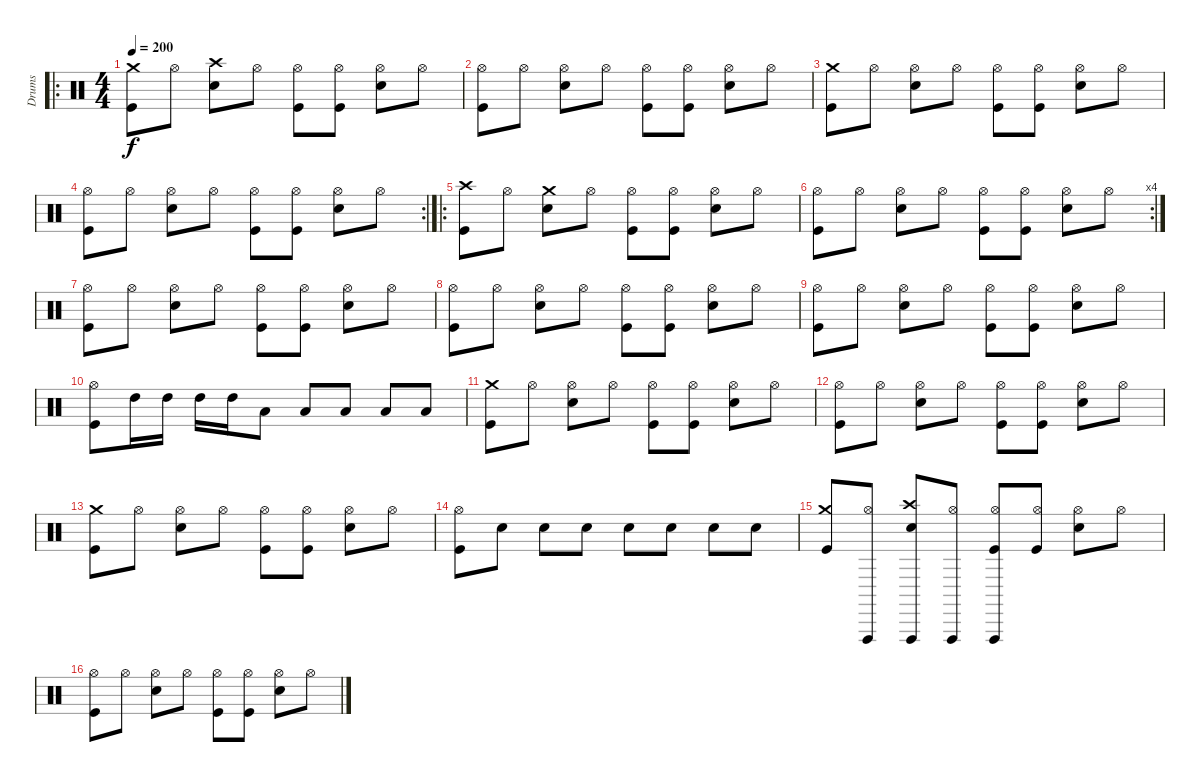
\track ("Drums" "Drums") {instrument percussion}
\staff {score}
\articulation defaults
\ro
\ts (4 4)
\tempo 200
\clef neutral
\ks c
("Crash medium (hit)" "Kick (hit)").8{dy f} "Hi-Hat (open)".8 ("Crash high (hit)" "Snare (hit) 2").8 "Hi-Hat (open)".8 ("Hi-Hat (open)" "Kick (hit)").8 ("Hi-Hat (open)" "Kick (hit)").8 ("Hi-Hat (open)" "Snare (hit) 2").8 "Hi-Hat (open)".8 |
("Hi-Hat (open)" "Kick (hit)").8 "Hi-Hat (open)".8 ("Hi-Hat (open)" "Snare (hit) 2").8 "Hi-Hat (open)".8 ("Hi-Hat (open)" "Kick (hit)").8 ("Hi-Hat (open)" "Kick (hit)").8 ("Hi-Hat (open)" "Snare (hit) 2").8 "Hi-Hat (open)".8 |
("Crash medium (hit)" "Kick (hit)").8 "Hi-Hat (open)".8 ("Hi-Hat (open)" "Snare (hit) 2").8 "Hi-Hat (open)".8 ("Hi-Hat (open)" "Kick (hit)").8 ("Hi-Hat (open)" "Kick (hit)").8 ("Hi-Hat (open)" "Snare (hit) 2").8 "Hi-Hat (open)".8 |
\rc 2
("Hi-Hat (open)" "Kick (hit)").8 "Hi-Hat (open)".8 ("Hi-Hat (open)" "Snare (hit) 2").8 "Hi-Hat (open)".8 ("Hi-Hat (open)" "Kick (hit)").8 ("Hi-Hat (open)" "Kick (hit)").8 ("Hi-Hat (open)" "Snare (hit) 2").8 "Hi-Hat (open)".8 |
\ro
("Crash high (hit)" "Kick (hit)").8 "Hi-Hat (open)".8 ("Crash medium (hit)" "Snare (hit) 2").8 "Hi-Hat (open)".8 ("Hi-Hat (open)" "Kick (hit)").8 ("Hi-Hat (open)" "Kick (hit)").8 ("Hi-Hat (open)" "Snare (hit) 2").8 "Hi-Hat (open)".8 |
\rc 4
("Hi-Hat (open)" "Kick (hit)").8 "Hi-Hat (open)".8 ("Hi-Hat (open)" "Snare (hit) 2").8 "Hi-Hat (open)".8 ("Hi-Hat (open)" "Kick (hit)").8 ("Hi-Hat (open)" "Kick (hit)").8 ("Hi-Hat (open)" "Snare (hit) 2").8 "Hi-Hat (open)".8 |
("Hi-Hat (open)" "Kick (hit)").8 "Hi-Hat (open)".8 ("Hi-Hat (open)" "Snare (hit) 2").8 "Hi-Hat (open)".8 ("Hi-Hat (open)" "Kick (hit)").8 ("Hi-Hat (open)" "Kick (hit)").8 ("Hi-Hat (open)" "Snare (hit) 2").8 "Hi-Hat (open)".8 |
("Hi-Hat (open)" "Kick (hit)").8 "Hi-Hat (open)".8 ("Hi-Hat (open)" "Snare (hit) 2").8 "Hi-Hat (open)".8 ("Hi-Hat (open)" "Kick (hit)").8 ("Hi-Hat (open)" "Kick (hit)").8 ("Hi-Hat (open)" "Snare (hit) 2").8 "Hi-Hat (open)".8 |
("Hi-Hat (open)" "Kick (hit)").8 "Hi-Hat (open)".8 ("Hi-Hat (open)" "Snare (hit) 2").8 "Hi-Hat (open)".8 ("Hi-Hat (open)" "Kick (hit)").8 ("Hi-Hat (open)" "Kick (hit)").8 ("Hi-Hat (open)" "Snare (hit) 2").8 "Hi-Hat (open)".8 |
("Hi-Hat (open)" "Kick (hit)").8 "High Tom (hit)".16 "High Tom (hit)".16 "High Tom (hit)".16 "High Tom (hit)".16 "Low Tom (hit)".8 "Low Tom (hit)".8 "Low Tom (hit)".8 "Low Tom (hit)".8 "Low Tom (hit)".8 |
("Crash medium (hit)" "Kick (hit)").8 "Hi-Hat (open)".8 ("Hi-Hat (open)" "Snare (hit) 2").8 "Hi-Hat (open)".8 ("Hi-Hat (open)" "Kick (hit)").8 ("Hi-Hat (open)" "Kick (hit)").8 ("Hi-Hat (open)" "Snare (hit) 2").8 "Hi-Hat (open)".8 |
("Hi-Hat (open)" "Kick (hit)").8 "Hi-Hat (open)".8 ("Hi-Hat (open)" "Snare (hit) 2").8 "Hi-Hat (open)".8 ("Hi-Hat (open)" "Kick (hit)").8 ("Hi-Hat (open)" "Kick (hit)").8 ("Hi-Hat (open)" "Snare (hit) 2").8 "Hi-Hat (open)".8 |
("Crash medium (hit)" "Kick (hit)").8 "Hi-Hat (open)".8 ("Hi-Hat (open)" "Snare (hit) 2").8 "Hi-Hat (open)".8 ("Hi-Hat (open)" "Kick (hit)").8 ("Hi-Hat (open)" "Kick (hit)").8 ("Hi-Hat (open)" "Snare (hit) 2").8 "Hi-Hat (open)".8 |
("Hi-Hat (open)" "Kick (hit)").8 "Snare (hit) 2".8 "Snare (hit) 2".8 "Snare (hit) 2".8 "Snare (hit) 2".8 "Snare (hit) 2".8 "Snare (hit) 2".8 "Snare (hit) 2".8 |
("Crash medium (hit)" "Kick (hit)").8 ("Vibraslap (hit)" "Hi-Hat (open)").8 ("Crash high (hit)" "Vibraslap (hit)" "Snare (hit) 2").8 ("Vibraslap (hit)" "Hi-Hat (open)").8 ("Vibraslap (hit)" "Hi-Hat (open)" "Kick (hit)").8 ("Hi-Hat (open)" "Kick (hit)").8 ("Hi-Hat (open)" "Snare (hit) 2").8 "Hi-Hat (open)".8 |
("Hi-Hat (open)" "Kick (hit)").8 "Hi-Hat (open)".8 ("Hi-Hat (open)" "Snare (hit) 2").8 "Hi-Hat (open)".8 ("Hi-Hat (open)" "Kick (hit)").8 ("Hi-Hat (open)" "Kick (hit)").8 ("Hi-Hat (open)" "Snare (hit) 2").8 "Hi-Hat (open)".8
